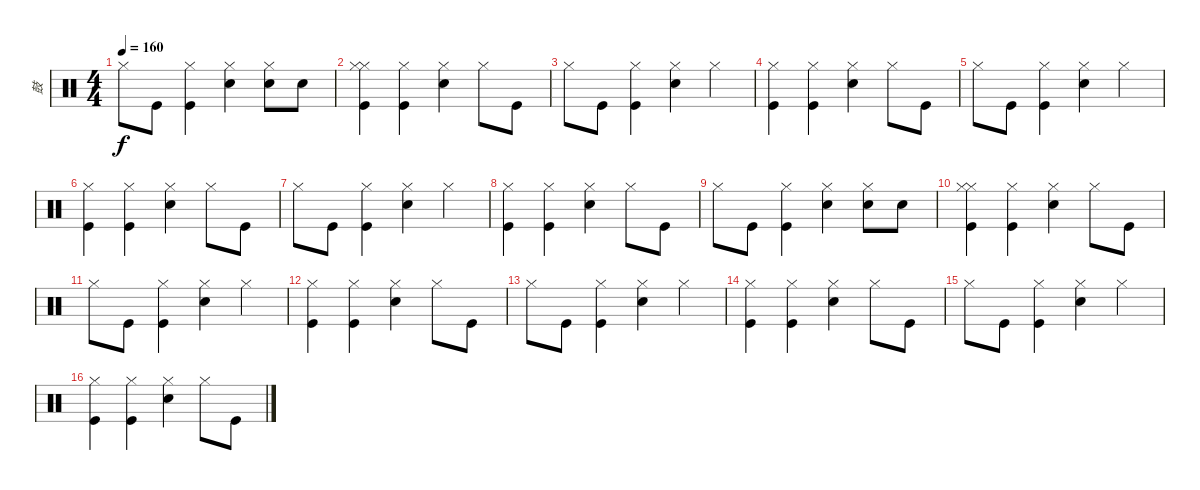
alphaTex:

\track ("鼓" "鼓") {instrument percussion}
\staff {score}
\articulation defaults
\ts (4 4)
\tempo 160
\clef neutral
\ks c "Hi-Hat (closed)".8{dy f} "Kick (hit)".8
("Hi-Hat (closed)" "Kick (hit)").4 ("Hi-Hat (closed)" "Electric Snare (hit)").4 ("Hi-Hat (closed)" "Electric Snare (hit)").8 "Electric Snare (hit)".8 |
("Hi-Hat (closed)" "Hi-Hat (closed)" "Kick (hit)").4 ("Hi-Hat (closed)" "Kick (hit)").4 ("Hi-Hat (closed)" "Electric Snare (hit)").4 "Hi-Hat (closed)".8 "Kick (hit)".8 |
"Hi-Hat (closed)".8 "Kick (hit)".8 ("Hi-Hat (closed)" "Kick (hit)").4 ("Hi-Hat (closed)" "Electric Snare (hit)").4 "Hi-Hat (closed)".4 |
("Hi-Hat (closed)" "Kick (hit)").4 ("Hi-Hat (closed)" "Kick (hit)").4 ("Hi-Hat (closed)" "Electric Snare (hit)").4 "Hi-Hat (closed)".8 "Kick (hit)".8 |
"Hi-Hat (closed)".8 "Kick (hit)".8 ("Hi-Hat (closed)" "Kick (hit)").4 ("Hi-Hat (closed)" "Electric Snare (hit)").4 "Hi-Hat (closed)".4 |
("Hi-Hat (closed)" "Kick (hit)").4 ("Hi-Hat (closed)" "Kick (hit)").4 ("Hi-Hat (closed)" "Electric Snare (hit)").4 "Hi-Hat (closed)".8 "Kick (hit)".8 |
"Hi-Hat (closed)".8 "Kick (hit)".8 ("Hi-Hat (closed)" "Kick (hit)").4 ("Hi-Hat (closed)" "Electric Snare (hit)").4 "Hi-Hat (closed)".4 |
("Hi-Hat (closed)" "Kick (hit)").4 ("Hi-Hat (closed)" "Kick (hit)").4 ("Hi-Hat (closed)" "Electric Snare (hit)").4 "Hi-Hat (closed)".8 "Kick (hit)".8 |
"Hi-Hat (closed)".8 "Kick (hit)".8 ("Hi-Hat (closed)" "Kick (hit)").4 ("Hi-Hat (closed)" "Electric Snare (hit)").4 ("Hi-Hat (closed)" "Electric Snare (hit)").8 "Electric Snare (hit)".8 |
("Hi-Hat (closed)" "Hi-Hat (closed)" "Kick (hit)").4 ("Hi-Hat (closed)" "Kick (hit)").4 ("Hi-Hat (closed)" "Electric Snare (hit)").4 "Hi-Hat (closed)".8 "Kick (hit)".8 |
"Hi-Hat (closed)".8 "Kick (hit)".8 ("Hi-Hat (closed)" "Kick (hit)").4 ("Hi-Hat (closed)" "Electric Snare (hit)").4 "Hi-Hat (closed)".4 |
("Hi-Hat (closed)" "Kick (hit)").4 ("Hi-Hat (closed)" "Kick (hit)").4 ("Hi-Hat (closed)" "Electric Snare (hit)").4 "Hi-Hat (closed)".8 "Kick (hit)".8 |
"Hi-Hat (closed)".8 "Kick (hit)".8 ("Hi-Hat (closed)" "Kick (hit)").4 ("Hi-Hat (closed)" "Electric Snare (hit)").4 "Hi-Hat (closed)".4 |
("Hi-Hat (closed)" "Kick (hit)").4 ("Hi-Hat (closed)" "Kick (hit)").4 ("Hi-Hat (closed)" "Electric Snare (hit)").4 "Hi-Hat (closed)".8 "Kick (hit)".8 |
"Hi-Hat (closed)".8 "Kick (hit)".8 ("Hi-Hat (closed)" "Kick (hit)").4 ("Hi-Hat (closed)" "Electric Snare (hit)").4 "Hi-Hat (closed)".4 |
("Hi-Hat (closed)" "Kick (hit)").4 ("Hi-Hat (closed)" "Kick (hit)").4 ("Hi-Hat (closed)" "Electric Snare (hit)").4 "Hi-Hat (closed)".8 "Kick (hit)".8
